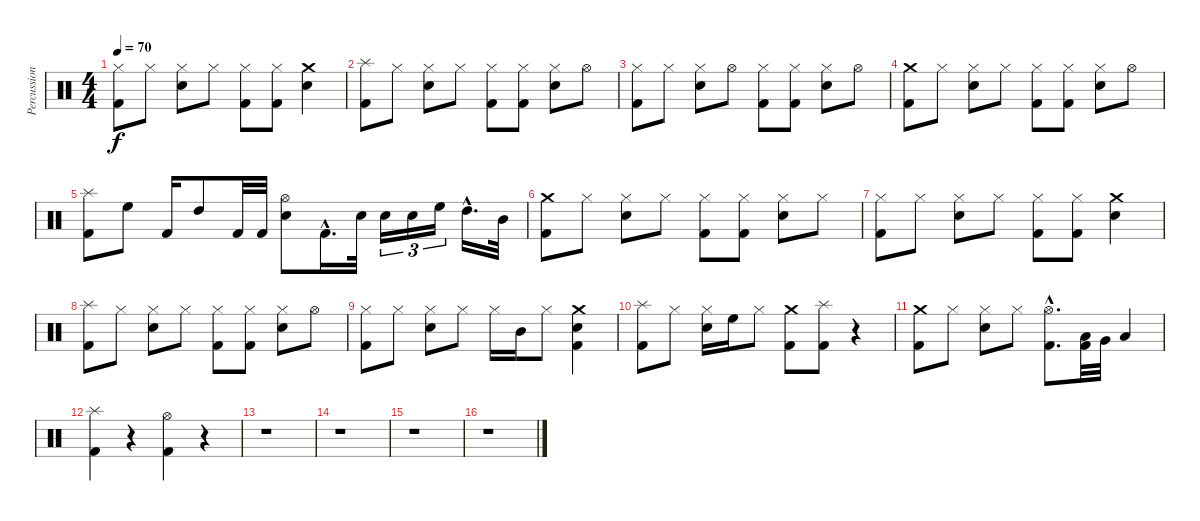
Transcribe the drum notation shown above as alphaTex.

\track ("Percussion" "Percussion") {instrument percussion}
\staff {score}
\articulation defaults
\ts (4 4)
\tempo 70
\clef neutral
\ks c
("Hi-Hat (closed)" "Kick (hit) 2").8{dy f} "Hi-Hat (closed)".8 ("Hi-Hat (closed)" "Snare (hit) 2").8 "Hi-Hat (closed)".8 ("Hi-Hat (closed)" "Kick (hit) 2").8 ("Hi-Hat (closed)" "Kick (hit) 2").8 ("Crash medium (hit)" "Snare (hit) 2").4 |
("Splash (hit)" "Kick (hit) 2").8 "Hi-Hat (closed)".8 ("Hi-Hat (closed)" "Snare (hit) 2").8 "Hi-Hat (closed)".8 ("Hi-Hat (closed)" "Kick (hit) 2").8 ("Hi-Hat (closed)" "Kick (hit) 2").8 ("Hi-Hat (closed)" "Snare (hit) 2").8 "Hi-Hat (open)".8 |
("Hi-Hat (closed)" "Kick (hit) 2").8 "Hi-Hat (closed)".8 ("Hi-Hat (closed)" "Snare (hit) 2").8 "Hi-Hat (open)".8 ("Hi-Hat (closed)" "Kick (hit) 2").8 ("Hi-Hat (closed)" "Kick (hit) 2").8 ("Hi-Hat (closed)" "Snare (hit) 2").8 "Hi-Hat (open)".8 |
("Crash medium (hit)" "Kick (hit) 2").8 "Hi-Hat (closed)".8 ("Hi-Hat (closed)" "Snare (hit) 2").8 "Hi-Hat (closed)".8 ("Hi-Hat (closed)" "Kick (hit) 2").8 ("Hi-Hat (closed)" "Kick (hit) 2").8 ("Hi-Hat (closed)" "Snare (hit) 2").8 "Hi-Hat (open)".8 |
("Splash (hit)" "Kick (hit) 2").8 "High Floor Tom (hit)".8 "Kick (hit) 2".16 "High Tom (hit)".8 "Kick (hit) 2".32 "Kick (hit) 2".32 ("Hi-Hat (open)" "Snare (hit) 2").8 "Kick (hit) 2"{hac}.16{d} "Snare (hit) 2".32 "Snare (hit) 2".16{tu (3 2)} "Snare (hit) 2".16{tu (3 2)} "High Floor Tom (hit)".16{tu (3 2)} "High Tom (hit)"{hac}.16{d} "Mid Tom (hit)".32 |
("Crash medium (hit)" "Kick (hit) 2").8 "Hi-Hat (closed)".8 ("Hi-Hat (closed)" "Snare (hit) 2").8 "Hi-Hat (closed)".8 ("Hi-Hat (closed)" "Kick (hit) 2").8 ("Hi-Hat (closed)" "Kick (hit) 2").8 ("Hi-Hat (closed)" "Snare (hit) 2").8 "Hi-Hat (closed)".8 |
("Hi-Hat (closed)" "Kick (hit) 2").8 "Hi-Hat (closed)".8 ("Hi-Hat (closed)" "Snare (hit) 2").8 "Hi-Hat (closed)".8 ("Hi-Hat (closed)" "Kick (hit) 2").8 ("Hi-Hat (closed)" "Kick (hit) 2").8 ("Crash medium (hit)" "Snare (hit) 2").4 |
("Splash (hit)" "Kick (hit) 2").8 "Hi-Hat (closed)".8 ("Hi-Hat (closed)" "Snare (hit) 2").8 "Hi-Hat (closed)".8 ("Hi-Hat (closed)" "Kick (hit) 2").8 ("Hi-Hat (closed)" "Kick (hit) 2").8 ("Hi-Hat (closed)" "Snare (hit) 2").8 "Hi-Hat (open)".8 |
("Hi-Hat (closed)" "Kick (hit) 2").8 "Hi-Hat (closed)".8 ("Hi-Hat (closed)" "Snare (hit) 2").8 "Hi-Hat (closed)".8 "Hi-Hat (closed)".16 "Mid Tom (hit)".16 "Hi-Hat (closed)".8 ("Crash medium (hit)" "Snare (hit) 2" "Kick (hit) 2").4 |
("Splash (hit)" "Kick (hit) 2").8 "Hi-Hat (closed)".8 ("Hi-Hat (closed)" "Snare (hit) 2").16 "High Floor Tom (hit)".16 "Hi-Hat (closed)".8 ("Crash medium (hit)" "Kick (hit) 2").8 ("Splash (hit)" "Kick (hit) 2").8 r.4 |
("Crash medium (hit)" "Kick (hit) 2").8 "Hi-Hat (closed)".8 ("Hi-Hat (closed)" "Snare (hit) 2").8 "Hi-Hat (closed)".8 ("Hi-Hat (open)"{hac} "Kick (hit) 2"{hac}).8{d} ("Low Tom (hit)" "Kick (hit) 2").32 "Very Low Tom (hit)".32 "Low Floor Tom (hit)".4 |
("Splash (hit)" "Kick (hit) 2").4 r.4 ("Hi-Hat (open)" "Kick (hit) 2").4 r.4 |
r.1 |
r.1 |
r.1 |
r.1
